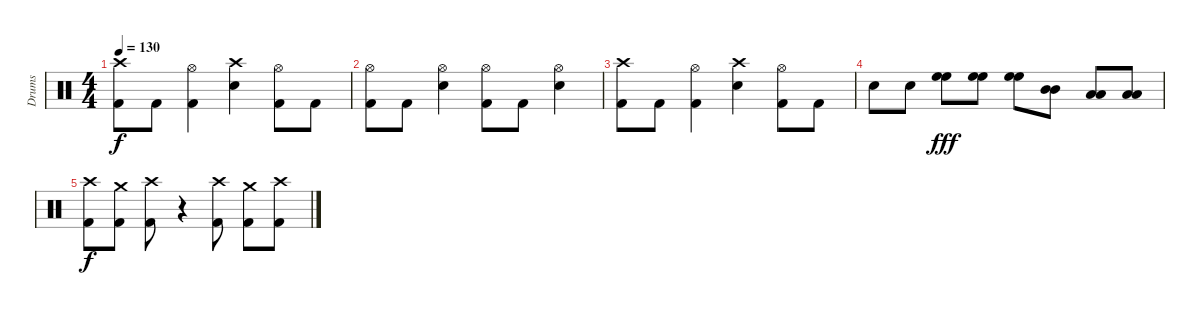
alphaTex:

\track ("Drums" "Drums") {instrument percussion}
\staff {score}
\articulation defaults
\ts (4 4)
\tempo 130
\clef neutral
\ks c
("Crash high (hit)" "Kick (hit) 2").8{dy f} "Kick (hit) 2".8 ("Hi-Hat (open)" "Kick (hit) 2").4 ("Crash high (hit)" "Snare (hit) 2").4 ("Hi-Hat (open)" "Kick (hit) 2").8 "Kick (hit) 2".8 |
("Hi-Hat (open)" "Kick (hit) 2").8 "Kick (hit) 2".8 ("Hi-Hat (open)" "Snare (hit) 2").4 ("Hi-Hat (open)" "Kick (hit) 2").8 "Kick (hit) 2".8 ("Hi-Hat (open)" "Snare (hit) 2").4 |
("Crash high (hit)" "Kick (hit) 2").8 "Kick (hit) 2".8 ("Hi-Hat (open)" "Kick (hit) 2").4 ("Crash high (hit)" "Snare (hit) 2").4 ("Hi-Hat (open)" "Kick (hit) 2").8 "Kick (hit) 2".8 |
"Snare (hit) 2".8 "Snare (hit) 2".8 ("High Floor Tom (hit)" "High Floor Tom (hit)").8{dy fff} ("High Floor Tom (hit)" "High Floor Tom (hit)").8 ("High Floor Tom (hit)" "High Floor Tom (hit)").8 ("Mid Tom (hit)" "Mid Tom (hit)").8 ("Low Tom (hit)" "Low Tom (hit)").8 ("Low Floor Tom (hit)" "Low Floor Tom (hit)").8 |
("Crash high (hit)" "Kick (hit) 2").8{dy f} ("Crash medium (hit)" "Kick (hit) 2").8 ("Crash high (hit)" "Kick (hit) 2").8 r.4 ("Crash high (hit)" "Kick (hit) 2").8 ("Crash medium (hit)" "Kick (hit) 2").8 ("Crash high (hit)" "Kick (hit) 2").8
